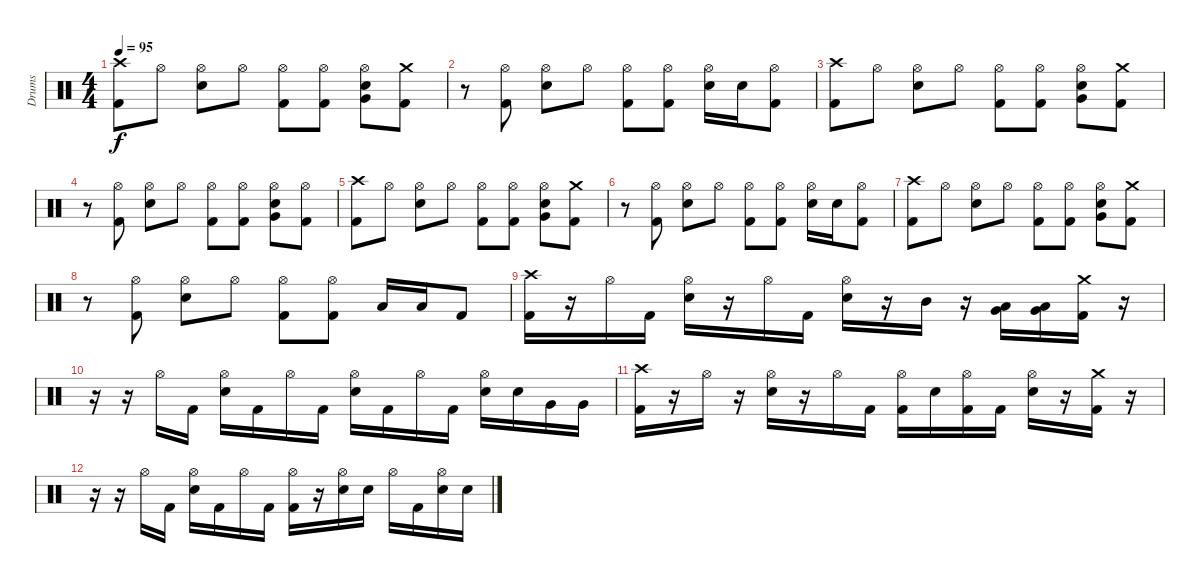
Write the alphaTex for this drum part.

\track ("Drums" "Drums") {instrument percussion}
\staff {score}
\articulation defaults
\ts (4 4)
\tempo 95
\clef neutral
\ks c
("Crash high (hit)" "Kick (hit) 2").8{dy f} "Hi-Hat (open)".8 ("Hi-Hat (open)" "Electric Snare (hit)").8 "Hi-Hat (open)".8 ("Hi-Hat (open)" "Kick (hit) 2").8 ("Hi-Hat (open)" "Kick (hit) 2").8 ("Hi-Hat (open)" "Electric Snare (hit)" "Very Low Tom (hit)").8 ("Crash medium (hit)" "Kick (hit) 2").8 |
r.8 ("Hi-Hat (open)" "Kick (hit) 2").8 ("Hi-Hat (open)" "Electric Snare (hit)").8 "Hi-Hat (open)".8 ("Hi-Hat (open)" "Kick (hit) 2").8 ("Hi-Hat (open)" "Kick (hit) 2").8 ("Hi-Hat (open)" "Electric Snare (hit)").16 "Electric Snare (hit)".16 ("Hi-Hat (open)" "Kick (hit) 2").8 |
("Crash high (hit)" "Kick (hit) 2").8 "Hi-Hat (open)".8 ("Hi-Hat (open)" "Electric Snare (hit)").8 "Hi-Hat (open)".8 ("Hi-Hat (open)" "Kick (hit) 2").8 ("Hi-Hat (open)" "Kick (hit) 2").8 ("Hi-Hat (open)" "Electric Snare (hit)" "Very Low Tom (hit)").8 ("Crash medium (hit)" "Kick (hit) 2").8 |
r.8 ("Hi-Hat (open)" "Kick (hit) 2").8 ("Hi-Hat (open)" "Electric Snare (hit)").8 "Hi-Hat (open)".8 ("Hi-Hat (open)" "Kick (hit) 2").8 ("Hi-Hat (open)" "Kick (hit) 2").8 ("Hi-Hat (open)" "Electric Snare (hit)" "Very Low Tom (hit)").8 ("Hi-Hat (open)" "Kick (hit) 2").8 |
("Crash high (hit)" "Kick (hit) 2").8 "Hi-Hat (open)".8 ("Hi-Hat (open)" "Electric Snare (hit)").8 "Hi-Hat (open)".8 ("Hi-Hat (open)" "Kick (hit) 2").8 ("Hi-Hat (open)" "Kick (hit) 2").8 ("Hi-Hat (open)" "Electric Snare (hit)" "Very Low Tom (hit)").8 ("Crash medium (hit)" "Kick (hit) 2").8 |
r.8 ("Hi-Hat (open)" "Kick (hit) 2").8 ("Hi-Hat (open)" "Electric Snare (hit)").8 "Hi-Hat (open)".8 ("Hi-Hat (open)" "Kick (hit) 2").8 ("Hi-Hat (open)" "Kick (hit) 2").8 ("Hi-Hat (open)" "Electric Snare (hit)").16 "Electric Snare (hit)".16 ("Hi-Hat (open)" "Kick (hit) 2").8 |
("Crash high (hit)" "Kick (hit) 2").8 "Hi-Hat (open)".8 ("Hi-Hat (open)" "Electric Snare (hit)").8 "Hi-Hat (open)".8 ("Hi-Hat (open)" "Kick (hit) 2").8 ("Hi-Hat (open)" "Kick (hit) 2").8 ("Hi-Hat (open)" "Electric Snare (hit)" "Very Low Tom (hit)").8 ("Crash medium (hit)" "Kick (hit) 2").8 |
r.8 ("Hi-Hat (open)" "Kick (hit) 2").8 ("Hi-Hat (open)" "Electric Snare (hit)").8 "Hi-Hat (open)".8 ("Hi-Hat (open)" "Kick (hit) 2").8 ("Hi-Hat (open)" "Kick (hit) 2").8 "Low Tom (hit)".16 "Low Tom (hit)".16 "Kick (hit) 2".8 |
("Crash high (hit)" "Kick (hit) 2").16 r.16 "Hi-Hat (open)".16 "Kick (hit) 2".16 ("Hi-Hat (open)" "Electric Snare (hit)").16 r.16 "Hi-Hat (open)".16 "Kick (hit) 2".16 ("Hi-Hat (open)" "Electric Snare (hit)").16 r.16 "Mid Tom (hit)".16 r.16 ("Low Tom (hit)" "Very Low Tom (hit)").16 ("Low Tom (hit)" "Very Low Tom (hit)").16 ("Crash medium (hit)" "Kick (hit) 2").16 r.16 |
r.16 r.16 "Hi-Hat (open)".16 "Kick (hit) 2".16 ("Hi-Hat (open)" "Electric Snare (hit)").16 "Kick (hit) 2".16 "Hi-Hat (open)".16 "Kick (hit) 2".16 ("Hi-Hat (open)" "Electric Snare (hit)").16 "Kick (hit) 2".16 "Hi-Hat (open)".16 "Kick (hit) 2".16 ("Hi-Hat (open)" "Electric Snare (hit)").16 "Electric Snare (hit)".16 "Very Low Tom (hit)".16 "Very Low Tom (hit)".16 |
("Crash high (hit)" "Kick (hit) 2").16 r.16 "Hi-Hat (open)".16 r.16 ("Hi-Hat (open)" "Electric Snare (hit)").16 r.16 "Hi-Hat (open)".16 "Kick (hit) 2".16 ("Hi-Hat (open)" "Kick (hit) 2").16 "Electric Snare (hit)".16 ("Hi-Hat (open)" "Kick (hit) 2").16 "Kick (hit) 2".16 ("Hi-Hat (open)" "Electric Snare (hit)").16 r.16 ("Crash medium (hit)" "Kick (hit) 2").16 r.16 |
r.16 r.16 "Hi-Hat (open)".16 "Kick (hit) 2".16 ("Hi-Hat (open)" "Electric Snare (hit)").16 "Kick (hit) 2".16 "Hi-Hat (open)".16 "Kick (hit) 2".16 ("Hi-Hat (open)" "Kick (hit) 2").16 r.16 ("Hi-Hat (open)" "Electric Snare (hit)").16 "Electric Snare (hit)".16 "Hi-Hat (open)".16 "Kick (hit) 2".16 ("Hi-Hat (open)" "Electric Snare (hit)").16 "Electric Snare (hit)".16
